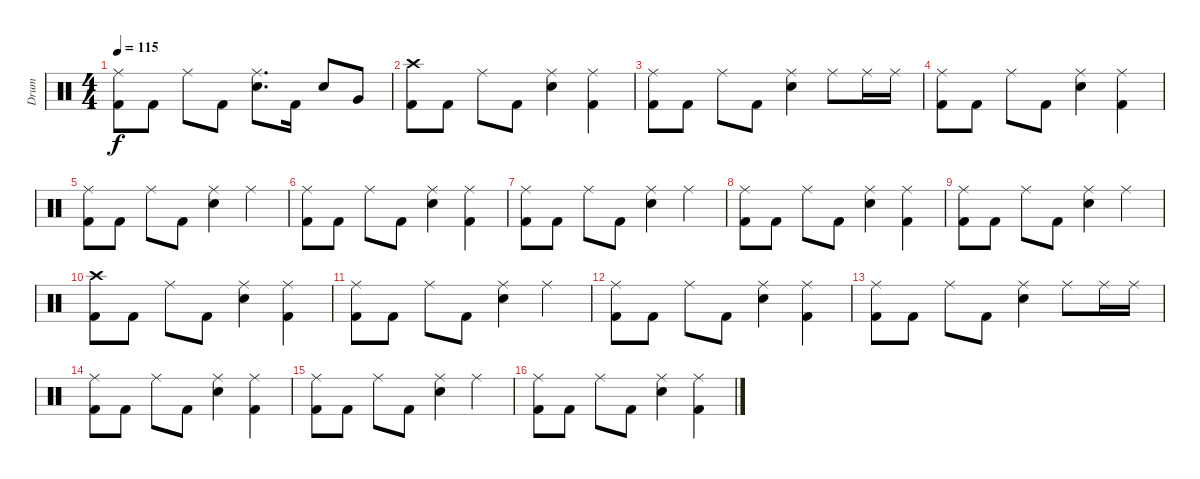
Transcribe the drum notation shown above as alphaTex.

\track ("Drum" "Drum") {instrument percussion}
\staff {score}
\articulation defaults
\ts (4 4)
\tempo 115
\clef neutral
\ks c
("Kick (hit) 2" "Ride (middle)").8{dy f} "Kick (hit) 2".8 "Ride (middle)".8 "Kick (hit) 2".8 ("Ride (middle)" "Electric Snare (hit)").8{d} "Kick (hit) 2".16 "Electric Snare (hit)".8 "Very Low Tom (hit)".8 |
("Kick (hit) 2" "Crash high (hit)").8 "Kick (hit) 2".8 "Ride (middle)".8 "Kick (hit) 2".8 ("Ride (middle)" "Electric Snare (hit)").4 ("Kick (hit) 2" "Ride (middle)").4 |
("Kick (hit) 2" "Ride (middle)").8 "Kick (hit) 2".8 "Ride (middle)".8 "Kick (hit) 2".8 ("Ride (middle)" "Electric Snare (hit)").4 "Ride (middle)".8 "Ride (middle)".16 "Ride (middle)".16 |
("Kick (hit) 2" "Ride (middle)").8 "Kick (hit) 2".8 "Ride (middle)".8 "Kick (hit) 2".8 ("Ride (middle)" "Electric Snare (hit)").4 ("Kick (hit) 2" "Ride (middle)").4 |
("Kick (hit) 2" "Ride (middle)").8 "Kick (hit) 2".8 "Ride (middle)".8 "Kick (hit) 2".8 ("Ride (middle)" "Electric Snare (hit)").4 "Ride (middle)".4 |
("Kick (hit) 2" "Ride (middle)").8 "Kick (hit) 2".8 "Ride (middle)".8 "Kick (hit) 2".8 ("Ride (middle)" "Electric Snare (hit)").4 ("Kick (hit) 2" "Ride (middle)").4 |
("Kick (hit) 2" "Ride (middle)").8 "Kick (hit) 2".8 "Ride (middle)".8 "Kick (hit) 2".8 ("Ride (middle)" "Electric Snare (hit)").4 "Ride (middle)".4 |
("Kick (hit) 2" "Ride (middle)").8 "Kick (hit) 2".8 "Ride (middle)".8 "Kick (hit) 2".8 ("Ride (middle)" "Electric Snare (hit)").4 ("Kick (hit) 2" "Ride (middle)").4 |
("Kick (hit) 2" "Ride (middle)").8 "Kick (hit) 2".8 "Ride (middle)".8 "Kick (hit) 2".8 ("Ride (middle)" "Electric Snare (hit)").4 "Ride (middle)".4 |
("Kick (hit) 2" "Crash high (hit)").8 "Kick (hit) 2".8 "Ride (middle)".8 "Kick (hit) 2".8 ("Ride (middle)" "Electric Snare (hit)").4 ("Kick (hit) 2" "Ride (middle)").4 |
("Kick (hit) 2" "Ride (middle)").8 "Kick (hit) 2".8 "Ride (middle)".8 "Kick (hit) 2".8 ("Ride (middle)" "Electric Snare (hit)").4 "Ride (middle)".4 |
("Kick (hit) 2" "Ride (middle)").8 "Kick (hit) 2".8 "Ride (middle)".8 "Kick (hit) 2".8 ("Ride (middle)" "Electric Snare (hit)").4 ("Kick (hit) 2" "Ride (middle)").4 |
("Kick (hit) 2" "Ride (middle)").8 "Kick (hit) 2".8 "Ride (middle)".8 "Kick (hit) 2".8 ("Ride (middle)" "Electric Snare (hit)").4 "Ride (middle)".8 "Ride (middle)".16 "Ride (middle)".16 |
("Kick (hit) 2" "Ride (middle)").8 "Kick (hit) 2".8 "Ride (middle)".8 "Kick (hit) 2".8 ("Ride (middle)" "Electric Snare (hit)").4 ("Kick (hit) 2" "Ride (middle)").4 |
("Kick (hit) 2" "Ride (middle)").8 "Kick (hit) 2".8 "Ride (middle)".8 "Kick (hit) 2".8 ("Ride (middle)" "Electric Snare (hit)").4 "Ride (middle)".4 |
("Kick (hit) 2" "Ride (middle)").8 "Kick (hit) 2".8 "Ride (middle)".8 "Kick (hit) 2".8 ("Ride (middle)" "Electric Snare (hit)").4 ("Kick (hit) 2" "Ride (middle)").4
